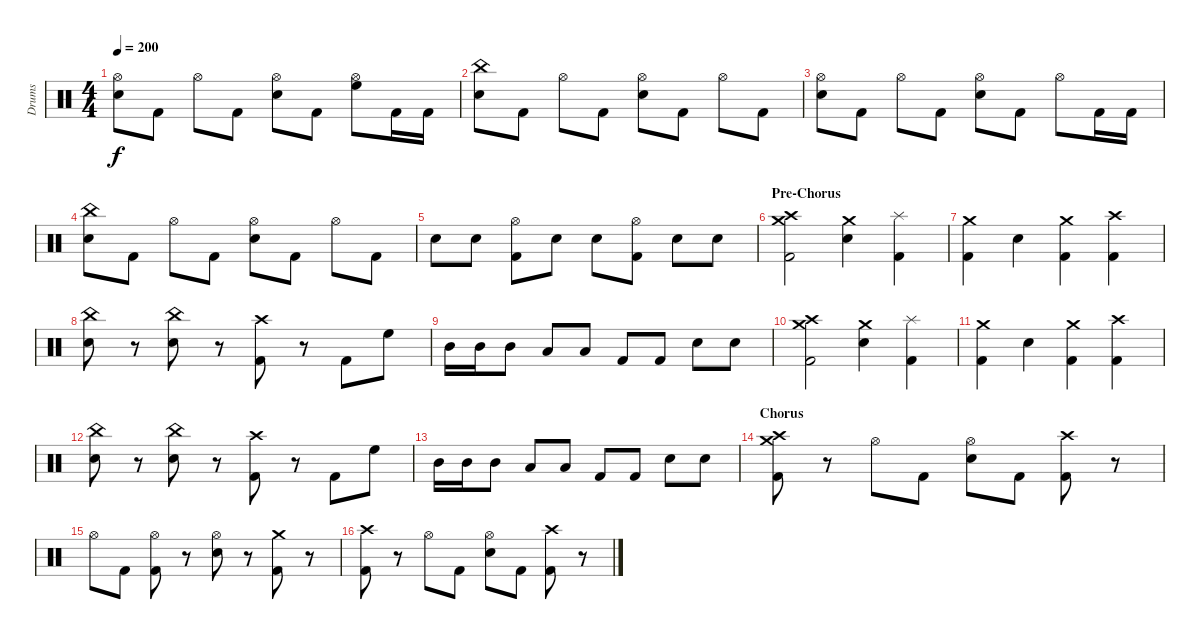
\track ("Drums" "Drums") {instrument percussion}
\staff {score}
\articulation defaults
\ts (4 4)
\tempo 200
\clef neutral
\ks c
("Hi-Hat (open)" "Electric Snare (hit)").8{dy f} "Kick (hit) 2".8 "Hi-Hat (open)".8 "Kick (hit) 2".8 ("Hi-Hat (open)" "Electric Snare (hit)").8 "Kick (hit) 2".8 ("Hi-Hat (open)" "High Floor Tom (hit)").8 "Kick (hit) 2".16 "Kick (hit) 2".16 |
("China (hit)" "Electric Snare (hit)").8 "Kick (hit) 2".8 "Hi-Hat (open)".8 "Kick (hit) 2".8 ("Hi-Hat (open)" "Electric Snare (hit)").8 "Kick (hit) 2".8 "Hi-Hat (open)".8 "Kick (hit) 2".8 |
("Hi-Hat (open)" "Electric Snare (hit)").8 "Kick (hit) 2".8 "Hi-Hat (open)".8 "Kick (hit) 2".8 ("Hi-Hat (open)" "Electric Snare (hit)").8 "Kick (hit) 2".8 "Hi-Hat (open)".8 "Kick (hit) 2".16 "Kick (hit) 2".16 |
("China (hit)" "Electric Snare (hit)").8 "Kick (hit) 2".8 "Hi-Hat (open)".8 "Kick (hit) 2".8 ("Hi-Hat (open)" "Electric Snare (hit)").8 "Kick (hit) 2".8 "Hi-Hat (open)".8 "Kick (hit) 2".8 |
"Electric Snare (hit)".8 "Electric Snare (hit)".8 ("Hi-Hat (open)" "Kick (hit) 2").8 "Electric Snare (hit)".8 "Electric Snare (hit)".8 ("Hi-Hat (open)" "Kick (hit) 2").8 "Electric Snare (hit)".8 "Electric Snare (hit)".8 |
\section ("" "Pre-Chorus")
("Crash medium (hit)" "Crash high (hit)" "Kick (hit) 2").2 ("Crash medium (hit)" "Electric Snare (hit)").4 ("Splash (hit)" "Kick (hit) 2").4 |
("Crash medium (hit)" "Kick (hit) 2").4 "Electric Snare (hit)".4 ("Crash medium (hit)" "Kick (hit) 2").4 ("Crash high (hit)" "Kick (hit) 2").4 |
("China (hit)" "Electric Snare (hit)").8 r.8 ("China (hit)" "Electric Snare (hit)").8 r.8 ("Crash high (hit)" "Kick (hit) 2").8 r.8 "Kick (hit) 2".8 "High Floor Tom (hit)".8 |
"Mid Tom (hit)".16 "Mid Tom (hit)".16 "Mid Tom (hit)".8 "Low Tom (hit)".8 "Low Tom (hit)".8 "Kick (hit) 2".8 "Kick (hit) 2".8 "Electric Snare (hit)".8 "Electric Snare (hit)".8 |
("Crash medium (hit)" "Crash high (hit)" "Kick (hit) 2").2 ("Crash medium (hit)" "Electric Snare (hit)").4 ("Splash (hit)" "Kick (hit) 2").4 |
("Crash medium (hit)" "Kick (hit) 2").4 "Electric Snare (hit)".4 ("Crash medium (hit)" "Kick (hit) 2").4 ("Crash high (hit)" "Kick (hit) 2").4 |
("China (hit)" "Electric Snare (hit)").8 r.8 ("China (hit)" "Electric Snare (hit)").8 r.8 ("Crash high (hit)" "Kick (hit) 2").8 r.8 "Kick (hit) 2".8 "High Floor Tom (hit)".8 |
"Mid Tom (hit)".16 "Mid Tom (hit)".16 "Mid Tom (hit)".8 "Low Tom (hit)".8 "Low Tom (hit)".8 "Kick (hit) 2".8 "Kick (hit) 2".8 "Electric Snare (hit)".8 "Electric Snare (hit)".8 |
\section ("" "Chorus")
("Crash medium (hit)" "Crash high (hit)" "Kick (hit) 2").8 r.8 "Hi-Hat (open)".8 "Kick (hit) 2".8 ("Hi-Hat (open)" "Electric Snare (hit)").8 "Kick (hit) 2".8 ("Crash high (hit)" "Kick (hit) 2").8 r.8 |
"Hi-Hat (open)".8 "Kick (hit) 2".8 ("Hi-Hat (open)" "Kick (hit) 2").8 r.8 ("Hi-Hat (open)" "Electric Snare (hit)").8 r.8 ("Crash medium (hit)" "Kick (hit) 2").8 r.8 |
("Crash high (hit)" "Kick (hit) 2").8 r.8 "Hi-Hat (open)".8 "Kick (hit) 2".8 ("Hi-Hat (open)" "Electric Snare (hit)").8 "Kick (hit) 2".8 ("Crash high (hit)" "Kick (hit) 2").8 r.8
